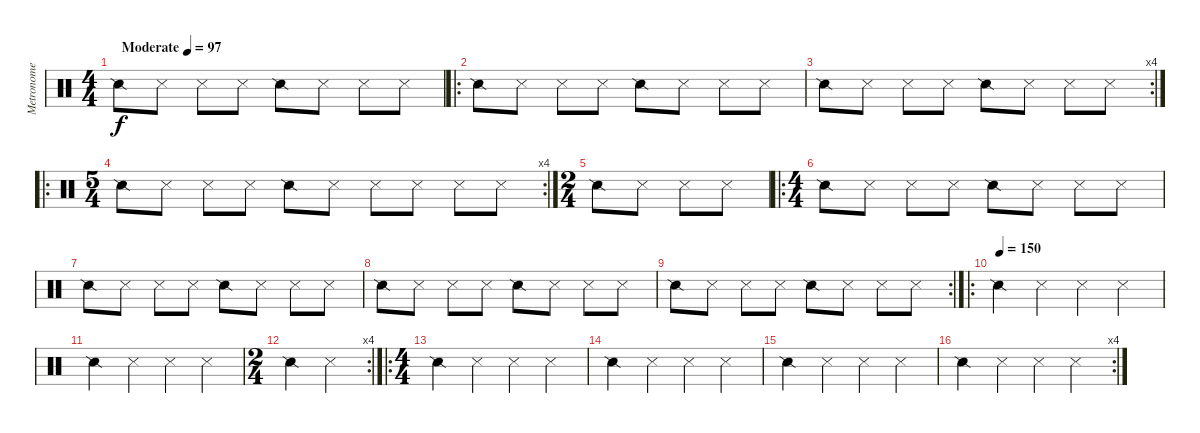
\track ("Metronome" "Metronome") {instrument percussion}
\staff {score}
\articulation defaults
\ts (4 4)
\tempo (97 "Moderate")
\clef neutral
\ks c "Snare (side stick) 2".8{dy f} "Snare (side stick) 3".8 "Snare (side stick) 3".8 "Snare (side stick) 3".8 "Snare (side stick) 2".8 "Snare (side stick) 3".8 "Snare (side stick) 3".8 "Snare (side stick) 3".8
|
\ro "Snare (side stick) 2".8 "Snare (side stick) 3".8 "Snare (side stick) 3".8 "Snare (side stick) 3".8 "Snare (side stick) 2".8 "Snare (side stick) 3".8 "Snare (side stick) 3".8 "Snare (side stick) 3".8
|
\rc 4 "Snare (side stick) 2".8 "Snare (side stick) 3".8 "Snare (side stick) 3".8 "Snare (side stick) 3".8 "Snare (side stick) 2".8 "Snare (side stick) 3".8 "Snare (side stick) 3".8 "Snare (side stick) 3".8
|
\ro
\rc 4
\ts (5 4)
"Snare (side stick) 2".8 "Snare (side stick) 3".8 "Snare (side stick) 3".8 "Snare (side stick) 3".8 "Snare (side stick) 2".8 "Snare (side stick) 3".8 "Snare (side stick) 3".8 "Snare (side stick) 3".8 "Snare (side stick) 3".8 "Snare (side stick) 3".8 |
\ts (2 4)
"Snare (side stick) 2".8 "Snare (side stick) 3".8 "Snare (side stick) 3".8 "Snare (side stick) 3".8 |
\ro
\ts (4 4)
"Snare (side stick) 2".8 "Snare (side stick) 3".8 "Snare (side stick) 3".8 "Snare (side stick) 3".8 "Snare (side stick) 2".8 "Snare (side stick) 3".8 "Snare (side stick) 3".8 "Snare (side stick) 3".8 |
"Snare (side stick) 2".8 "Snare (side stick) 3".8 "Snare (side stick) 3".8 "Snare (side stick) 3".8 "Snare (side stick) 2".8 "Snare (side stick) 3".8 "Snare (side stick) 3".8 "Snare (side stick) 3".8 |
"Snare (side stick) 2".8 "Snare (side stick) 3".8 "Snare (side stick) 3".8 "Snare (side stick) 3".8 "Snare (side stick) 2".8 "Snare (side stick) 3".8 "Snare (side stick) 3".8 "Snare (side stick) 3".8 |
\rc 2 "Snare (side stick) 2".8 "Snare (side stick) 3".8 "Snare (side stick) 3".8 "Snare (side stick) 3".8 "Snare (side stick) 2".8 "Snare (side stick) 3".8 "Snare (side stick) 3".8 "Snare (side stick) 3".8
|
\ro
\tempo (150)
"Snare (side stick) 2".4 "Snare (side stick) 3".4 "Snare (side stick) 3".4 "Snare (side stick) 3".4 |
"Snare (side stick) 2".4 "Snare (side stick) 3".4 "Snare (side stick) 3".4 "Snare (side stick) 3".4 |
\rc 4
\ts (2 4)
"Snare (side stick) 2".4 "Snare (side stick) 3".4 |
\ro
\ts (4 4)
"Snare (side stick) 2".4 "Snare (side stick) 3".4 "Snare (side stick) 3".4 "Snare (side stick) 3".4 |
"Snare (side stick) 2".4 "Snare (side stick) 3".4 "Snare (side stick) 3".4 "Snare (side stick) 3".4 |
"Snare (side stick) 2".4 "Snare (side stick) 3".4 "Snare (side stick) 3".4 "Snare (side stick) 3".4 |
\rc 4 "Snare (side stick) 2".4 "Snare (side stick) 3".4 "Snare (side stick) 3".4 "Snare (side stick) 3".4
